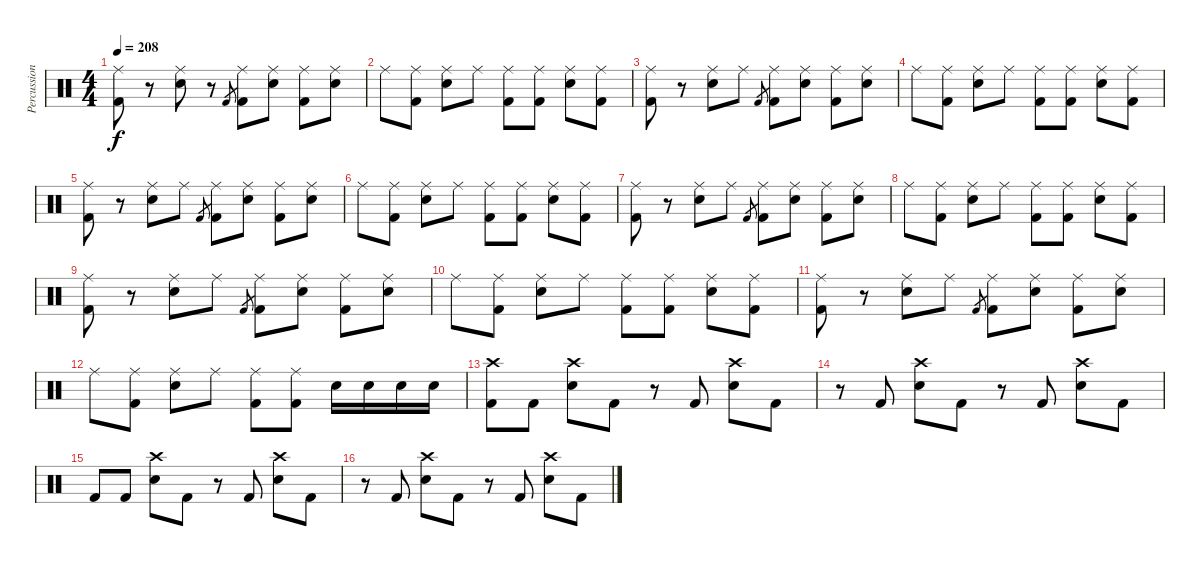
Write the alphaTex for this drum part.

\track ("Percussion" "Percussion") {instrument percussion}
\staff {score}
\articulation defaults
\ts (4 4)
\tempo 208
\clef neutral
\ks c
("Ride (middle)" "Kick (hit) 2").8{dy f} r.8 ("Ride (middle)" "Electric Snare (hit)").8 r.8 "Kick (hit) 2".8{gr} ("Ride (middle)" "Kick (hit) 2").8 ("Ride (middle)" "Electric Snare (hit)").8 ("Ride (middle)" "Kick (hit) 2").8 ("Ride (middle)" "Electric Snare (hit)").8 |
"Ride (middle)".8 ("Ride (middle)" "Kick (hit) 2").8 ("Ride (middle)" "Electric Snare (hit)").8 "Ride (middle)".8 ("Ride (middle)" "Kick (hit) 2").8 ("Ride (middle)" "Kick (hit) 2").8 ("Ride (middle)" "Electric Snare (hit)").8 ("Ride (middle)" "Kick (hit) 2").8 |
("Ride (middle)" "Kick (hit) 2").8 r.8 ("Ride (middle)" "Electric Snare (hit)").8 "Ride (middle)".8 "Kick (hit) 2".8{gr} ("Ride (middle)" "Kick (hit) 2").8 ("Ride (middle)" "Electric Snare (hit)").8 ("Ride (middle)" "Kick (hit) 2").8 ("Ride (middle)" "Electric Snare (hit)").8 |
"Ride (middle)".8 ("Ride (middle)" "Kick (hit) 2").8 ("Ride (middle)" "Electric Snare (hit)").8 "Ride (middle)".8 ("Ride (middle)" "Kick (hit) 2").8 ("Ride (middle)" "Kick (hit) 2").8 ("Ride (middle)" "Electric Snare (hit)").8 ("Ride (middle)" "Kick (hit) 2").8 |
("Ride (middle)" "Kick (hit) 2").8 r.8 ("Ride (middle)" "Electric Snare (hit)").8 "Ride (middle)".8 "Kick (hit) 2".8{gr} ("Ride (middle)" "Kick (hit) 2").8 ("Ride (middle)" "Electric Snare (hit)").8 ("Ride (middle)" "Kick (hit) 2").8 ("Ride (middle)" "Electric Snare (hit)").8 |
"Ride (middle)".8 ("Ride (middle)" "Kick (hit) 2").8 ("Ride (middle)" "Electric Snare (hit)").8 "Ride (middle)".8 ("Ride (middle)" "Kick (hit) 2").8 ("Ride (middle)" "Kick (hit) 2").8 ("Ride (middle)" "Electric Snare (hit)").8 ("Ride (middle)" "Kick (hit) 2").8 |
("Ride (middle)" "Kick (hit) 2").8 r.8 ("Ride (middle)" "Electric Snare (hit)").8 "Ride (middle)".8 "Kick (hit) 2".8{gr} ("Ride (middle)" "Kick (hit) 2").8 ("Ride (middle)" "Electric Snare (hit)").8 ("Ride (middle)" "Kick (hit) 2").8 ("Ride (middle)" "Electric Snare (hit)").8 |
"Ride (middle)".8 ("Ride (middle)" "Kick (hit) 2").8 ("Ride (middle)" "Electric Snare (hit)").8 "Ride (middle)".8 ("Ride (middle)" "Kick (hit) 2").8 ("Ride (middle)" "Kick (hit) 2").8 ("Ride (middle)" "Electric Snare (hit)").8 ("Ride (middle)" "Kick (hit) 2").8 |
("Ride (middle)" "Kick (hit) 2").8 r.8 ("Ride (middle)" "Electric Snare (hit)").8 "Ride (middle)".8 "Kick (hit) 2".8{gr} ("Ride (middle)" "Kick (hit) 2").8 ("Ride (middle)" "Electric Snare (hit)").8 ("Ride (middle)" "Kick (hit) 2").8 ("Ride (middle)" "Electric Snare (hit)").8 |
"Ride (middle)".8 ("Ride (middle)" "Kick (hit) 2").8 ("Ride (middle)" "Electric Snare (hit)").8 "Ride (middle)".8 ("Ride (middle)" "Kick (hit) 2").8 ("Ride (middle)" "Kick (hit) 2").8 ("Ride (middle)" "Electric Snare (hit)").8 ("Ride (middle)" "Kick (hit) 2").8 |
("Ride (middle)" "Kick (hit) 2").8 r.8 ("Ride (middle)" "Electric Snare (hit)").8 "Ride (middle)".8 "Kick (hit) 2".8{gr} ("Ride (middle)" "Kick (hit) 2").8 ("Ride (middle)" "Electric Snare (hit)").8 ("Ride (middle)" "Kick (hit) 2").8 ("Ride (middle)" "Electric Snare (hit)").8 |
"Ride (middle)".8 ("Ride (middle)" "Kick (hit) 2").8 ("Ride (middle)" "Electric Snare (hit)").8 "Ride (middle)".8 ("Ride (middle)" "Kick (hit) 2").8 ("Ride (middle)" "Kick (hit) 2").8 "Electric Snare (hit)".16 "Electric Snare (hit)".16 "Electric Snare (hit)".16 "Electric Snare (hit)".16 |
("Crash high (hit)" "Kick (hit) 2").8 "Kick (hit) 2".8 ("Crash high (hit)" "Electric Snare (hit)").8 "Kick (hit) 2".8 r.8 "Kick (hit) 2".8 ("Crash high (hit)" "Electric Snare (hit)").8 "Kick (hit) 2".8 |
r.8 "Kick (hit) 2".8 ("Crash high (hit)" "Electric Snare (hit)").8 "Kick (hit) 2".8 r.8 "Kick (hit) 2".8 ("Crash high (hit)" "Electric Snare (hit)").8 "Kick (hit) 2".8 |
"Kick (hit) 2".8 "Kick (hit) 2".8 ("Crash high (hit)" "Electric Snare (hit)").8 "Kick (hit) 2".8 r.8 "Kick (hit) 2".8 ("Crash high (hit)" "Electric Snare (hit)").8 "Kick (hit) 2".8 |
r.8 "Kick (hit) 2".8 ("Crash high (hit)" "Electric Snare (hit)").8 "Kick (hit) 2".8 r.8 "Kick (hit) 2".8 ("Crash high (hit)" "Electric Snare (hit)").8 "Kick (hit) 2".8
